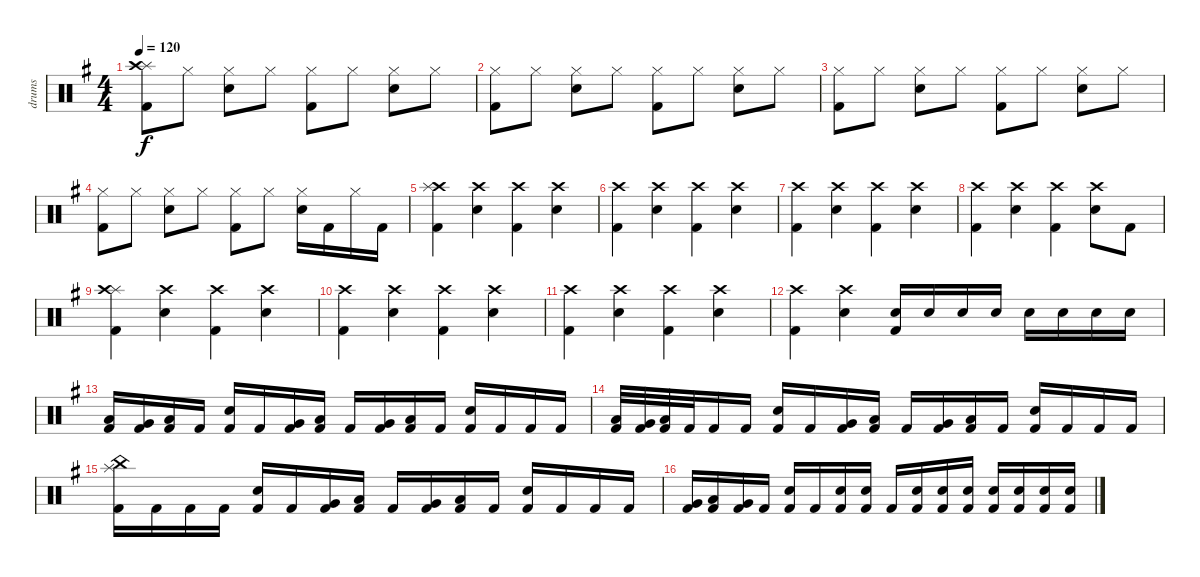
\track ("drums" "drums") {instrument percussion}
\staff {score}
\articulation defaults
\ts (4 4)
\tempo 120
\clef neutral
\ks eminor
("Kick (hit) 2" "Splash (hit)" "Crash high (hit)").8{dy f} "Hi-Hat (closed)".8 ("Electric Snare (hit)" "Hi-Hat (closed)").8 "Hi-Hat (closed)".8 ("Kick (hit) 2" "Hi-Hat (closed)").8 "Hi-Hat (closed)".8 ("Electric Snare (hit)" "Hi-Hat (closed)").8 "Hi-Hat (closed)".8 |
("Kick (hit) 2" "Hi-Hat (closed)").8 "Hi-Hat (closed)".8 ("Electric Snare (hit)" "Hi-Hat (closed)").8 "Hi-Hat (closed)".8 ("Kick (hit) 2" "Hi-Hat (closed)").8 "Hi-Hat (closed)".8 ("Electric Snare (hit)" "Hi-Hat (closed)").8 "Hi-Hat (closed)".8 |
("Kick (hit) 2" "Hi-Hat (closed)").8 "Hi-Hat (closed)".8 ("Electric Snare (hit)" "Hi-Hat (closed)").8 "Hi-Hat (closed)".8 ("Kick (hit) 2" "Hi-Hat (closed)").8 "Hi-Hat (closed)".8 ("Electric Snare (hit)" "Hi-Hat (closed)").8 "Hi-Hat (closed)".8 |
("Kick (hit) 2" "Hi-Hat (closed)").8 "Hi-Hat (closed)".8 ("Electric Snare (hit)" "Hi-Hat (closed)").8 "Hi-Hat (closed)".8 ("Kick (hit) 2" "Hi-Hat (closed)").8 "Hi-Hat (closed)".8 ("Electric Snare (hit)" "Hi-Hat (closed)").16 "Kick (hit) 2".16 "Hi-Hat (closed)".16 "Kick (hit) 2".16 |
("Kick (hit) 2" "Crash high (hit)" "Splash (hit)").4 ("Electric Snare (hit)" "Crash high (hit)").4 ("Kick (hit) 2" "Crash high (hit)").4 ("Electric Snare (hit)" "Crash high (hit)").4 |
("Kick (hit) 2" "Crash high (hit)").4 ("Electric Snare (hit)" "Crash high (hit)").4 ("Kick (hit) 2" "Crash high (hit)").4 ("Electric Snare (hit)" "Crash high (hit)").4 |
("Kick (hit) 2" "Crash high (hit)").4 ("Electric Snare (hit)" "Crash high (hit)").4 ("Kick (hit) 2" "Crash high (hit)").4 ("Electric Snare (hit)" "Crash high (hit)").4 |
("Kick (hit) 2" "Crash high (hit)").4 ("Electric Snare (hit)" "Crash high (hit)").4 ("Kick (hit) 2" "Crash high (hit)").4 ("Electric Snare (hit)" "Crash high (hit)").8 "Kick (hit) 2".8 |
("Kick (hit) 2" "Splash (hit)" "Crash high (hit)").4 ("Electric Snare (hit)" "Crash high (hit)").4 ("Kick (hit) 2" "Crash high (hit)").4 ("Electric Snare (hit)" "Crash high (hit)").4 |
("Kick (hit) 2" "Crash high (hit)").4 ("Electric Snare (hit)" "Crash high (hit)").4 ("Kick (hit) 2" "Crash high (hit)").4 ("Electric Snare (hit)" "Crash high (hit)").4 |
("Kick (hit) 2" "Crash high (hit)").4 ("Electric Snare (hit)" "Crash high (hit)").4 ("Kick (hit) 2" "Crash high (hit)").4 ("Electric Snare (hit)" "Crash high (hit)").4 |
("Kick (hit) 2" "Crash high (hit)").4 ("Electric Snare (hit)" "Crash high (hit)").4 ("Kick (hit) 2" "Electric Snare (hit)").16 "Electric Snare (hit)".16 "Electric Snare (hit)".16 "Electric Snare (hit)".16 "Electric Snare (hit)".16 "Electric Snare (hit)".16 "Electric Snare (hit)".16 "Electric Snare (hit)".16 |
("Kick (hit) 2" "Low Tom (hit)").16 ("Kick (hit) 2" "Very Low Tom (hit)").16 ("Kick (hit) 2" "Low Floor Tom (hit)").16 "Kick (hit) 2".16 ("Kick (hit) 2" "Electric Snare (hit)").16 "Kick (hit) 2".16 ("Kick (hit) 2" "Very Low Tom (hit)").16 ("Kick (hit) 2" "Low Tom (hit)").16 "Kick (hit) 2".16 ("Kick (hit) 2" "Very Low Tom (hit)").16 ("Kick (hit) 2" "Low Tom (hit)").16 "Kick (hit) 2".16 ("Kick (hit) 2" "Electric Snare (hit)").16 "Kick (hit) 2".16 "Kick (hit) 2".16 "Kick (hit) 2".16 |
("Kick (hit) 2" "Low Tom (hit)").32 ("Kick (hit) 2" "Very Low Tom (hit)").32 ("Kick (hit) 2" "Low Floor Tom (hit)").32 "Kick (hit) 2".32 "Kick (hit) 2".16 "Kick (hit) 2".16 ("Kick (hit) 2" "Electric Snare (hit)").16 "Kick (hit) 2".16 ("Kick (hit) 2" "Very Low Tom (hit)").16 ("Kick (hit) 2" "Low Tom (hit)").16 "Kick (hit) 2".16 ("Kick (hit) 2" "Very Low Tom (hit)").16 ("Kick (hit) 2" "Low Tom (hit)").16 "Kick (hit) 2".16 ("Kick (hit) 2" "Electric Snare (hit)").16 "Kick (hit) 2".16 "Kick (hit) 2".16 "Kick (hit) 2".16 |
("Kick (hit) 2" "Splash (hit)" "China (hit)").16 "Kick (hit) 2".16 "Kick (hit) 2".16 "Kick (hit) 2".16 ("Kick (hit) 2" "Electric Snare (hit)").16 "Kick (hit) 2".16 ("Kick (hit) 2" "Very Low Tom (hit)").16 ("Kick (hit) 2" "Low Tom (hit)").16 "Kick (hit) 2".16 ("Kick (hit) 2" "Very Low Tom (hit)").16 ("Kick (hit) 2" "Low Tom (hit)").16 "Kick (hit) 2".16 ("Kick (hit) 2" "Electric Snare (hit)").16 "Kick (hit) 2".16 "Kick (hit) 2".16 "Kick (hit) 2".16 |
("Kick (hit) 2" "Very Low Tom (hit)").16 ("Kick (hit) 2" "Low Tom (hit)").16 ("Kick (hit) 2" "Very Low Tom (hit)").16 "Kick (hit) 2".16 ("Kick (hit) 2" "Electric Snare (hit)").16 "Kick (hit) 2".16 ("Kick (hit) 2" "Electric Snare (hit)").16 ("Kick (hit) 2" "Electric Snare (hit)").16 "Kick (hit) 2".16 ("Kick (hit) 2" "Electric Snare (hit)").16 ("Kick (hit) 2" "Electric Snare (hit)").16 ("Kick (hit) 2" "Electric Snare (hit)").16 ("Kick (hit) 2" "Electric Snare (hit)").16 ("Kick (hit) 2" "Electric Snare (hit)").16 ("Kick (hit) 2" "Electric Snare (hit)").16 ("Kick (hit) 2" "Electric Snare (hit)").16
